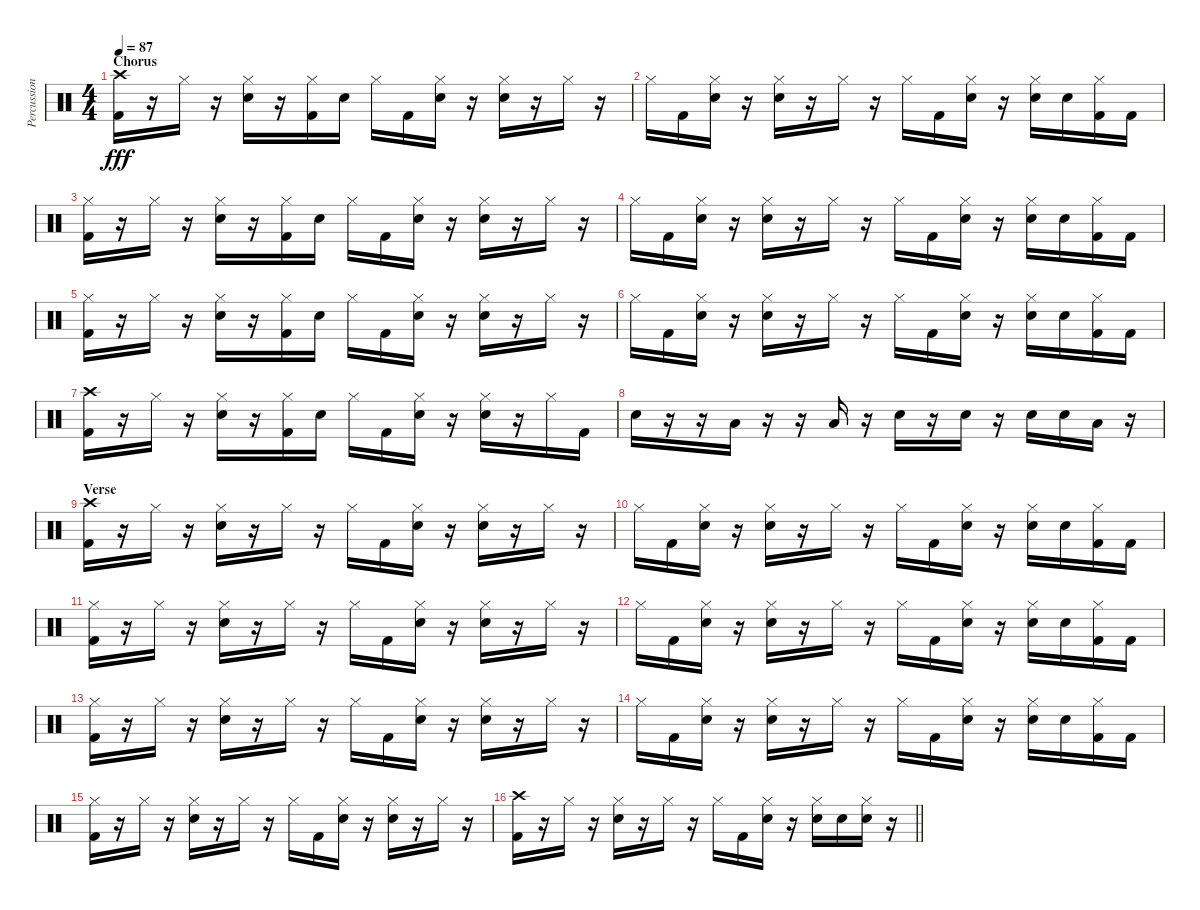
\track ("Percussion" "Percussion") {instrument percussion}
\staff {score}
\articulation defaults
\ts (4 4)
\section ("" "Chorus")
\tempo 87
\clef neutral
\ks c
("Crash high (hit)" "Kick (hit) 2").16{dy fff} r.16 "Hi-Hat (closed)".16 r.16 ("Hi-Hat (closed)" "Electric Snare (hit)").16 r.16 ("Hi-Hat (closed)" "Kick (hit) 2").16 "Electric Snare (hit)".16 "Hi-Hat (closed)".16 "Kick (hit) 2".16 ("Hi-Hat (closed)" "Electric Snare (hit)").16 r.16 ("Hi-Hat (closed)" "Electric Snare (hit)").16 r.16 "Hi-Hat (closed)".16 r.16 |
"Hi-Hat (closed)".16 "Kick (hit) 2".16 ("Hi-Hat (closed)" "Electric Snare (hit)").16 r.16 ("Hi-Hat (closed)" "Electric Snare (hit)").16 r.16 "Hi-Hat (closed)".16 r.16 "Hi-Hat (closed)".16 "Kick (hit) 2".16 ("Hi-Hat (closed)" "Electric Snare (hit)").16 r.16 ("Hi-Hat (closed)" "Electric Snare (hit)").16 "Electric Snare (hit)".16 ("Hi-Hat (closed)" "Kick (hit) 2").16 "Kick (hit) 2".16 |
("Hi-Hat (closed)" "Kick (hit) 2").16 r.16 "Hi-Hat (closed)".16 r.16 ("Hi-Hat (closed)" "Electric Snare (hit)").16 r.16 ("Hi-Hat (closed)" "Kick (hit) 2").16 "Electric Snare (hit)".16 "Hi-Hat (closed)".16 "Kick (hit) 2".16 ("Hi-Hat (closed)" "Electric Snare (hit)").16 r.16 ("Hi-Hat (closed)" "Electric Snare (hit)").16 r.16 "Hi-Hat (closed)".16 r.16 |
"Hi-Hat (closed)".16 "Kick (hit) 2".16 ("Hi-Hat (closed)" "Electric Snare (hit)").16 r.16 ("Hi-Hat (closed)" "Electric Snare (hit)").16 r.16 "Hi-Hat (closed)".16 r.16 "Hi-Hat (closed)".16 "Kick (hit) 2".16 ("Hi-Hat (closed)" "Electric Snare (hit)").16 r.16 ("Hi-Hat (closed)" "Electric Snare (hit)").16 "Electric Snare (hit)".16 ("Hi-Hat (closed)" "Kick (hit) 2").16 "Kick (hit) 2".16 |
("Hi-Hat (closed)" "Kick (hit) 2").16 r.16 "Hi-Hat (closed)".16 r.16 ("Hi-Hat (closed)" "Electric Snare (hit)").16 r.16 ("Hi-Hat (closed)" "Kick (hit) 2").16 "Electric Snare (hit)".16 "Hi-Hat (closed)".16 "Kick (hit) 2".16 ("Hi-Hat (closed)" "Electric Snare (hit)").16 r.16 ("Hi-Hat (closed)" "Electric Snare (hit)").16 r.16 "Hi-Hat (closed)".16 r.16 |
"Hi-Hat (closed)".16 "Kick (hit) 2".16 ("Hi-Hat (closed)" "Electric Snare (hit)").16 r.16 ("Hi-Hat (closed)" "Electric Snare (hit)").16 r.16 "Hi-Hat (closed)".16 r.16 "Hi-Hat (closed)".16 "Kick (hit) 2".16 ("Hi-Hat (closed)" "Electric Snare (hit)").16 r.16 ("Hi-Hat (closed)" "Electric Snare (hit)").16 "Electric Snare (hit)".16 ("Hi-Hat (closed)" "Kick (hit) 2").16 "Kick (hit) 2".16 |
("Crash high (hit)" "Kick (hit) 2").16 r.16 "Hi-Hat (closed)".16 r.16 ("Hi-Hat (closed)" "Electric Snare (hit)").16 r.16 ("Hi-Hat (closed)" "Kick (hit) 2").16 "Electric Snare (hit)".16 "Hi-Hat (closed)".16 "Kick (hit) 2".16 ("Hi-Hat (closed)" "Electric Snare (hit)").16 r.16 ("Hi-Hat (closed)" "Electric Snare (hit)").16 r.16 "Hi-Hat (closed)".16 "Kick (hit) 2".16 |
"Electric Snare (hit)".16 r.16 r.16 "Low Tom (hit)".16 r.16 r.16 "Low Tom (hit)".16 r.16 "Electric Snare (hit)".16 r.16 "Electric Snare (hit)".16 r.16 "Electric Snare (hit)".16 "Electric Snare (hit)".16 "Low Tom (hit)".16 r.16 |
\section ("" "Verse")
("Crash high (hit)" "Kick (hit) 2").16 r.16 "Hi-Hat (closed)".16 r.16 ("Hi-Hat (closed)" "Electric Snare (hit)").16 r.16 "Hi-Hat (closed)".16 r.16 "Hi-Hat (closed)".16 "Kick (hit) 2".16 ("Hi-Hat (closed)" "Electric Snare (hit)").16 r.16 ("Hi-Hat (closed)" "Electric Snare (hit)").16 r.16 "Hi-Hat (closed)".16 r.16 |
"Hi-Hat (closed)".16 "Kick (hit) 2".16 ("Hi-Hat (closed)" "Electric Snare (hit)").16 r.16 ("Hi-Hat (closed)" "Electric Snare (hit)").16 r.16 "Hi-Hat (closed)".16 r.16 "Hi-Hat (closed)".16 "Kick (hit) 2".16 ("Hi-Hat (closed)" "Electric Snare (hit)").16 r.16 ("Hi-Hat (closed)" "Electric Snare (hit)").16 "Electric Snare (hit)".16 ("Hi-Hat (closed)" "Kick (hit) 2").16 "Kick (hit) 2".16 |
("Hi-Hat (closed)" "Kick (hit) 2").16 r.16 "Hi-Hat (closed)".16 r.16 ("Hi-Hat (closed)" "Electric Snare (hit)").16 r.16 "Hi-Hat (closed)".16 r.16 "Hi-Hat (closed)".16 "Kick (hit) 2".16 ("Hi-Hat (closed)" "Electric Snare (hit)").16 r.16 ("Hi-Hat (closed)" "Electric Snare (hit)").16 r.16 "Hi-Hat (closed)".16 r.16 |
"Hi-Hat (closed)".16 "Kick (hit) 2".16 ("Hi-Hat (closed)" "Electric Snare (hit)").16 r.16 ("Hi-Hat (closed)" "Electric Snare (hit)").16 r.16 "Hi-Hat (closed)".16 r.16 "Hi-Hat (closed)".16 "Kick (hit) 2".16 ("Hi-Hat (closed)" "Electric Snare (hit)").16 r.16 ("Hi-Hat (closed)" "Electric Snare (hit)").16 "Electric Snare (hit)".16 ("Hi-Hat (closed)" "Kick (hit) 2").16 "Kick (hit) 2".16 |
("Hi-Hat (closed)" "Kick (hit) 2").16 r.16 "Hi-Hat (closed)".16 r.16 ("Hi-Hat (closed)" "Electric Snare (hit)").16 r.16 "Hi-Hat (closed)".16 r.16 "Hi-Hat (closed)".16 "Kick (hit) 2".16 ("Hi-Hat (closed)" "Electric Snare (hit)").16 r.16 ("Hi-Hat (closed)" "Electric Snare (hit)").16 r.16 "Hi-Hat (closed)".16 r.16 |
"Hi-Hat (closed)".16 "Kick (hit) 2".16 ("Hi-Hat (closed)" "Electric Snare (hit)").16 r.16 ("Hi-Hat (closed)" "Electric Snare (hit)").16 r.16 "Hi-Hat (closed)".16 r.16 "Hi-Hat (closed)".16 "Kick (hit) 2".16 ("Hi-Hat (closed)" "Electric Snare (hit)").16 r.16 ("Hi-Hat (closed)" "Electric Snare (hit)").16 "Electric Snare (hit)".16 ("Hi-Hat (closed)" "Kick (hit) 2").16 "Kick (hit) 2".16 |
("Hi-Hat (closed)" "Kick (hit) 2").16 r.16 "Hi-Hat (closed)".16 r.16 ("Hi-Hat (closed)" "Electric Snare (hit)").16 r.16 "Hi-Hat (closed)".16 r.16 "Hi-Hat (closed)".16 "Kick (hit) 2".16 ("Hi-Hat (closed)" "Electric Snare (hit)").16 r.16 ("Hi-Hat (closed)" "Electric Snare (hit)").16 r.16 "Hi-Hat (closed)".16 r.16 |
\barLineRight lightlight
("Crash high (hit)" "Kick (hit) 2").16 r.16 "Hi-Hat (closed)".16 r.16 ("Hi-Hat (closed)" "Electric Snare (hit)").16 r.16 "Hi-Hat (closed)".16 r.16 "Hi-Hat (closed)".16 "Kick (hit) 2".16 ("Hi-Hat (closed)" "Electric Snare (hit)").16 r.16 ("Hi-Hat (closed)" "Electric Snare (hit)").16 "Electric Snare (hit)".16 ("Hi-Hat (closed)" "Electric Snare (hit)").16 r.16
